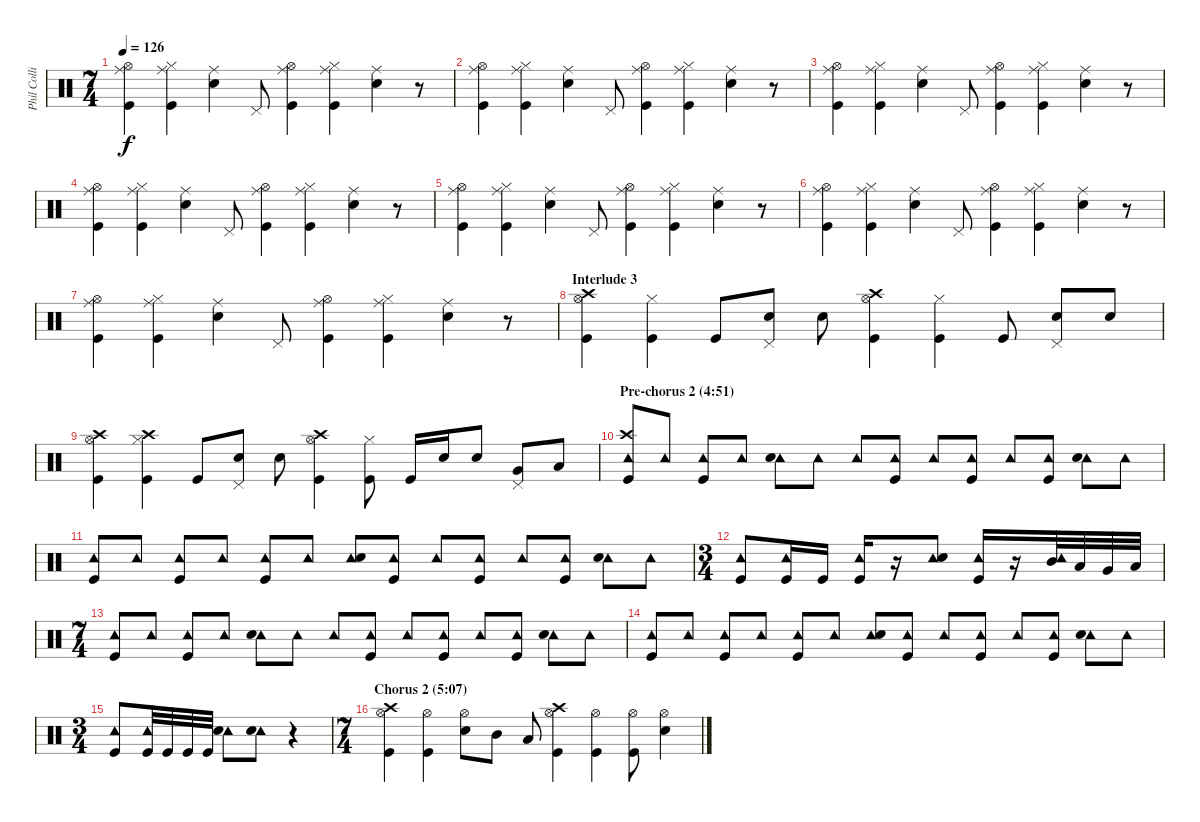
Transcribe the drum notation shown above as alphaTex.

\track ("Phil Collins (drums)" "Phil Colli") {instrument percussion}
\staff {score}
\articulation defaults
\ts (7 4)
\tempo 126
\clef neutral
\ks c
("Ride (middle)" "Hi-Hat (open)" "Kick (hit)").4{dy f} ("Ride (middle)" "Hi-Hat (closed)" "Kick (hit)").4 ("Ride (middle)" "Snare (hit) 2").4 "Pedal Hi-Hat (hit)".8 ("Ride (middle)" "Hi-Hat (open)" "Kick (hit)").4 ("Ride (middle)" "Hi-Hat (closed)" "Kick (hit)").4 ("Ride (middle)" "Snare (hit) 2").4 r.8 |
("Ride (middle)" "Hi-Hat (open)" "Kick (hit)").4 ("Ride (middle)" "Hi-Hat (closed)" "Kick (hit)").4 ("Ride (middle)" "Snare (hit) 2").4 "Pedal Hi-Hat (hit)".8 ("Ride (middle)" "Hi-Hat (open)" "Kick (hit)").4 ("Ride (middle)" "Hi-Hat (closed)" "Kick (hit)").4 ("Ride (middle)" "Snare (hit) 2").4 r.8 |
("Ride (middle)" "Hi-Hat (open)" "Kick (hit)").4 ("Ride (middle)" "Hi-Hat (closed)" "Kick (hit)").4 ("Ride (middle)" "Snare (hit) 2").4 "Pedal Hi-Hat (hit)".8 ("Ride (middle)" "Hi-Hat (open)" "Kick (hit)").4 ("Ride (middle)" "Hi-Hat (closed)" "Kick (hit)").4 ("Ride (middle)" "Snare (hit) 2").4 r.8 |
("Ride (middle)" "Hi-Hat (open)" "Kick (hit)").4 ("Ride (middle)" "Hi-Hat (closed)" "Kick (hit)").4 ("Ride (middle)" "Snare (hit) 2").4 "Pedal Hi-Hat (hit)".8 ("Ride (middle)" "Hi-Hat (open)" "Kick (hit)").4 ("Ride (middle)" "Hi-Hat (closed)" "Kick (hit)").4 ("Ride (middle)" "Snare (hit) 2").4 r.8 |
("Ride (middle)" "Hi-Hat (open)" "Kick (hit)").4 ("Ride (middle)" "Hi-Hat (closed)" "Kick (hit)").4 ("Ride (middle)" "Snare (hit) 2").4 "Pedal Hi-Hat (hit)".8 ("Ride (middle)" "Hi-Hat (open)" "Kick (hit)").4 ("Ride (middle)" "Hi-Hat (closed)" "Kick (hit)").4 ("Ride (middle)" "Snare (hit) 2").4 r.8 |
("Ride (middle)" "Hi-Hat (open)" "Kick (hit)").4 ("Ride (middle)" "Hi-Hat (closed)" "Kick (hit)").4 ("Ride (middle)" "Snare (hit) 2").4 "Pedal Hi-Hat (hit)".8 ("Ride (middle)" "Hi-Hat (open)" "Kick (hit)").4 ("Ride (middle)" "Hi-Hat (closed)" "Kick (hit)").4 ("Ride (middle)" "Snare (hit) 2").4 r.8 |
("Ride (middle)" "Hi-Hat (open)" "Kick (hit)").4 ("Ride (middle)" "Hi-Hat (closed)" "Kick (hit)").4 ("Ride (middle)" "Snare (hit) 2").4 "Pedal Hi-Hat (hit)".8 ("Ride (middle)" "Hi-Hat (open)" "Kick (hit)").4 ("Ride (middle)" "Hi-Hat (closed)" "Kick (hit)").4 ("Ride (middle)" "Snare (hit) 2").4 r.8 |
\section ("" "Interlude 3")
("Crash high (hit)" "Hi-Hat (open)" "Kick (hit)").4 ("Hi-Hat (closed)" "Kick (hit)").4 "Kick (hit)".8 ("Pedal Hi-Hat (hit)" "Snare (hit) 2").8 "Snare (hit) 2".8 ("Crash high (hit)" "Hi-Hat (open)" "Kick (hit)").4 ("Hi-Hat (closed)" "Kick (hit)").4 "Kick (hit)".8 ("Pedal Hi-Hat (hit)" "Snare (hit) 2").8 "Snare (hit) 2".8 |
("Crash high (hit)" "Hi-Hat (open)" "Kick (hit)").4 ("Crash high (hit)" "Hi-Hat (closed)" "Kick (hit)").4 "Kick (hit)".8 ("Pedal Hi-Hat (hit)" "Snare (hit) 2").8 "Snare (hit) 2".8 ("Crash high (hit)" "Hi-Hat (open)" "Kick (hit)").4 ("Hi-Hat (closed)" "Kick (hit)").8 "Kick (hit)".16 "Snare (hit) 2".16 "Snare (hit) 2".8 ("Pedal Hi-Hat (hit)" "Very Low Tom (hit)").8 "Low Floor Tom (hit)".8 |
\section ("" "Pre-chorus 2 (4:51)")
("Crash high (hit)" "Tambourine (hit)" "Kick (hit)").8 "Tambourine (hit)".8 ("Tambourine (hit)" "Kick (hit)").8 "Tambourine (hit)".8 ("Tambourine (hit)" "Snare (hit) 2").8 "Tambourine (hit)".8 "Tambourine (hit)".8 ("Tambourine (hit)" "Kick (hit)").8 "Tambourine (hit)".8 ("Tambourine (hit)" "Kick (hit)").8 "Tambourine (hit)".8 ("Tambourine (hit)" "Kick (hit)").8 ("Tambourine (hit)" "Snare (hit) 2").8 "Tambourine (hit)".8 |
("Tambourine (hit)" "Kick (hit)").8 "Tambourine (hit)".8 ("Tambourine (hit)" "Kick (hit)").8 "Tambourine (hit)".8 ("Tambourine (hit)" "Kick (hit)").8 "Tambourine (hit)".8 ("Tambourine (hit)" "Snare (hit) 2").8 ("Tambourine (hit)" "Kick (hit)").8 "Tambourine (hit)".8 ("Tambourine (hit)" "Kick (hit)").8 "Tambourine (hit)".8 ("Tambourine (hit)" "Kick (hit)").8 ("Tambourine (hit)" "Snare (hit) 2").8 "Tambourine (hit)".8 |
\ts (3 4)
("Tambourine (hit)" "Kick (hit)").8 ("Tambourine (hit)" "Kick (hit)").16 "Kick (hit)".16 ("Tambourine (hit)" "Kick (hit)").16 r.16 ("Tambourine (hit)" "Snare (hit) 2").8 ("Tambourine (hit)" "Kick (hit)").16 r.16 ("Tambourine (hit)" "Mid Tom (hit)").32 "Low Tom (hit)".32 "Very Low Tom (hit)".32 "Low Floor Tom (hit)".32 |
\ts (7 4)
("Tambourine (hit)" "Kick (hit)").8 "Tambourine (hit)".8 ("Tambourine (hit)" "Kick (hit)").8 "Tambourine (hit)".8 ("Tambourine (hit)" "Snare (hit) 2").8 "Tambourine (hit)".8 "Tambourine (hit)".8 ("Tambourine (hit)" "Kick (hit)").8 "Tambourine (hit)".8 ("Tambourine (hit)" "Kick (hit)").8 "Tambourine (hit)".8 ("Tambourine (hit)" "Kick (hit)").8 ("Tambourine (hit)" "Snare (hit) 2").8 "Tambourine (hit)".8 |
("Tambourine (hit)" "Kick (hit)").8 "Tambourine (hit)".8 ("Tambourine (hit)" "Kick (hit)").8 "Tambourine (hit)".8 ("Tambourine (hit)" "Kick (hit)").8 "Tambourine (hit)".8 ("Tambourine (hit)" "Snare (hit) 2").8 ("Tambourine (hit)" "Kick (hit)").8 "Tambourine (hit)".8 ("Tambourine (hit)" "Kick (hit)").8 "Tambourine (hit)".8 ("Tambourine (hit)" "Kick (hit)").8 ("Tambourine (hit)" "Snare (hit) 2").8 "Tambourine (hit)".8 |
\ts (3 4)
("Tambourine (hit)" "Kick (hit)").8 ("Tambourine (hit)" "Kick (hit)").32 "Kick (hit)".32 "Kick (hit)".32 "Kick (hit)".32 ("Tambourine (hit)" "Snare (hit) 2").8 ("Tambourine (hit)" "Snare (hit) 2").8 r.4 |
\ts (7 4)
\section ("" "Chorus 2 (5:07)")
("Crash high (hit)" "Hi-Hat (open)" "Kick (hit)").4 ("Hi-Hat (open)" "Kick (hit)").4 ("Hi-Hat (open)" "Snare (hit) 2").8 "Mid Tom (hit)".8 "Low Tom (hit)".8 ("Crash high (hit)" "Hi-Hat (open)" "Kick (hit)").4 ("Hi-Hat (open)" "Kick (hit)").4 ("Hi-Hat (open)" "Kick (hit)").8 ("Hi-Hat (open)" "Snare (hit) 2").4
